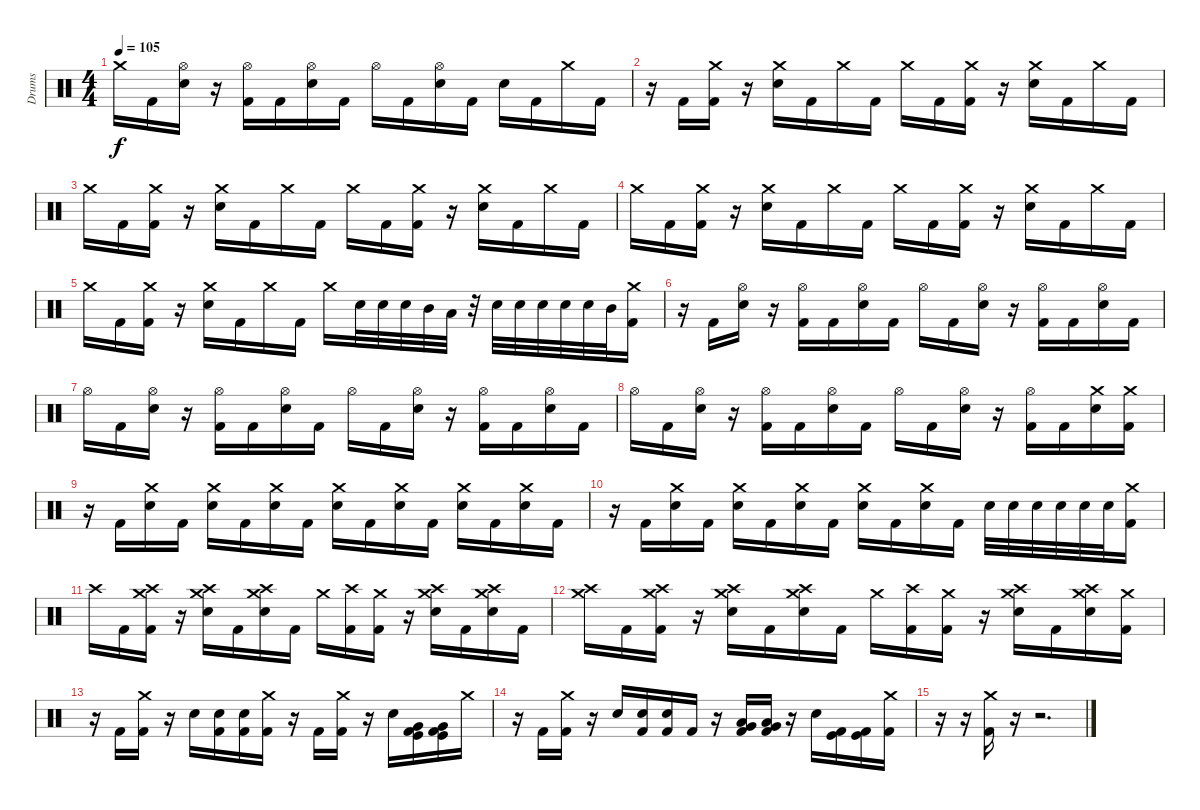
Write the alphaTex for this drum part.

\track ("Drums" "Drums") {instrument percussion}
\staff {score}
\articulation defaults
\ts (4 4)
\tempo 105
\clef neutral
\ks c "Crash medium (hit)".16{dy f} "Kick (hit) 2".16
("Hi-Hat (open)" "Electric Snare (hit)").16 r.16 ("Hi-Hat (open)" "Kick (hit) 2").16 "Kick (hit) 2".16 ("Hi-Hat (open)" "Electric Snare (hit)").16 "Kick (hit) 2".16 "Hi-Hat (open)".16 "Kick (hit) 2".16 ("Hi-Hat (open)" "Electric Snare (hit)").16 "Kick (hit) 2".16 "Electric Snare (hit)".16 "Kick (hit) 2".16 "Crash medium (hit)".16 "Kick (hit) 2".16 |
r.16 "Kick (hit) 2".16 ("Crash medium (hit)" "Kick (hit) 2").16 r.16 ("Crash medium (hit)" "Electric Snare (hit)").16 "Kick (hit) 2".16 "Crash medium (hit)".16 "Kick (hit) 2".16 "Crash medium (hit)".16 "Kick (hit) 2".16 ("Crash medium (hit)" "Kick (hit) 2").16 r.16 ("Crash medium (hit)" "Electric Snare (hit)").16 "Kick (hit) 2".16 "Crash medium (hit)".16 "Kick (hit) 2".16 |
"Crash medium (hit)".16 "Kick (hit) 2".16 ("Crash medium (hit)" "Kick (hit) 2").16 r.16 ("Crash medium (hit)" "Electric Snare (hit)").16 "Kick (hit) 2".16 "Crash medium (hit)".16 "Kick (hit) 2".16 "Crash medium (hit)".16 "Kick (hit) 2".16 ("Crash medium (hit)" "Kick (hit) 2").16 r.16 ("Crash medium (hit)" "Electric Snare (hit)").16 "Kick (hit) 2".16 "Crash medium (hit)".16 "Kick (hit) 2".16 |
"Crash medium (hit)".16 "Kick (hit) 2".16 ("Crash medium (hit)" "Kick (hit) 2").16 r.16 ("Crash medium (hit)" "Electric Snare (hit)").16 "Kick (hit) 2".16 "Crash medium (hit)".16 "Kick (hit) 2".16 "Crash medium (hit)".16 "Kick (hit) 2".16 ("Crash medium (hit)" "Kick (hit) 2").16 r.16 ("Crash medium (hit)" "Electric Snare (hit)").16 "Kick (hit) 2".16 "Crash medium (hit)".16 "Kick (hit) 2".16 |
"Crash medium (hit)".16 "Kick (hit) 2".16 ("Crash medium (hit)" "Kick (hit) 2").16 r.16 ("Crash medium (hit)" "Electric Snare (hit)").16 "Kick (hit) 2".16 "Crash medium (hit)".16 "Kick (hit) 2".16 "Crash medium (hit)".16 "Electric Snare (hit)".32 "Electric Snare (hit)".32 "Electric Snare (hit)".32 "Mid Tom (hit)".32 "Low Tom (hit)".32 r.32 "Electric Snare (hit)".32 "Electric Snare (hit)".32 "Electric Snare (hit)".32 "Electric Snare (hit)".32 "Electric Snare (hit)".32 "Mid Tom (hit)".32 ("Crash medium (hit)" "Kick (hit) 2").16 |
r.16 "Kick (hit) 2".16 ("Hi-Hat (open)" "Electric Snare (hit)").16 r.16 ("Hi-Hat (open)" "Kick (hit) 2").16 "Kick (hit) 2".16 ("Hi-Hat (open)" "Electric Snare (hit)").16 "Kick (hit) 2".16 "Hi-Hat (open)".16 "Kick (hit) 2".16 ("Hi-Hat (open)" "Electric Snare (hit)").16 r.16 ("Hi-Hat (open)" "Kick (hit) 2").16 "Kick (hit) 2".16 ("Hi-Hat (open)" "Electric Snare (hit)").16 "Kick (hit) 2".16 |
"Hi-Hat (open)".16 "Kick (hit) 2".16 ("Hi-Hat (open)" "Electric Snare (hit)").16 r.16 ("Hi-Hat (open)" "Kick (hit) 2").16 "Kick (hit) 2".16 ("Hi-Hat (open)" "Electric Snare (hit)").16 "Kick (hit) 2".16 "Hi-Hat (open)".16 "Kick (hit) 2".16 ("Hi-Hat (open)" "Electric Snare (hit)").16 r.16 ("Hi-Hat (open)" "Kick (hit) 2").16 "Kick (hit) 2".16 ("Hi-Hat (open)" "Electric Snare (hit)").16 "Kick (hit) 2".16 |
"Hi-Hat (open)".16 "Kick (hit) 2".16 ("Hi-Hat (open)" "Electric Snare (hit)").16 r.16 ("Hi-Hat (open)" "Kick (hit) 2").16 "Kick (hit) 2".16 ("Hi-Hat (open)" "Electric Snare (hit)").16 "Kick (hit) 2".16 "Hi-Hat (open)".16 "Kick (hit) 2".16 ("Hi-Hat (open)" "Electric Snare (hit)").16 r.16 ("Hi-Hat (open)" "Kick (hit) 2").16 "Kick (hit) 2".16 ("Crash medium (hit)" "Electric Snare (hit)").16 ("Crash medium (hit)" "Kick (hit) 2").16 |
r.16 "Kick (hit) 2".16 ("Crash medium (hit)" "Electric Snare (hit)").16 "Kick (hit) 2".16 ("Crash medium (hit)" "Electric Snare (hit)").16 "Kick (hit) 2".16 ("Crash medium (hit)" "Electric Snare (hit)").16 "Kick (hit) 2".16 ("Crash medium (hit)" "Electric Snare (hit)").16 "Kick (hit) 2".16 ("Crash medium (hit)" "Electric Snare (hit)").16 "Kick (hit) 2".16 ("Crash medium (hit)" "Electric Snare (hit)").16 "Kick (hit) 2".16 ("Crash medium (hit)" "Electric Snare (hit)").16 "Kick (hit) 2".16 |
r.16 "Kick (hit) 2".16 ("Crash medium (hit)" "Electric Snare (hit)").16 "Kick (hit) 2".16 ("Crash medium (hit)" "Electric Snare (hit)").16 "Kick (hit) 2".16 ("Crash medium (hit)" "Electric Snare (hit)").16 "Kick (hit) 2".16 ("Crash medium (hit)" "Electric Snare (hit)").16 "Kick (hit) 2".16 ("Crash medium (hit)" "Electric Snare (hit)").16 "Kick (hit) 2".16 "Electric Snare (hit)".32 "Electric Snare (hit)".32 "Electric Snare (hit)".32 "Electric Snare (hit)".32 "Electric Snare (hit)".32 "Electric Snare (hit)".32 ("Crash medium (hit)" "Kick (hit) 2").16 |
"Crash high (hit)".16 "Kick (hit) 2".16 ("Crash medium (hit)" "Crash high (hit)" "Kick (hit) 2").16 r.16 ("Crash medium (hit)" "Crash high (hit)" "Electric Snare (hit)").16 "Kick (hit) 2".16 ("Crash medium (hit)" "Crash high (hit)" "Electric Snare (hit)").16 "Kick (hit) 2".16 "Crash medium (hit)".16 ("Crash high (hit)" "Kick (hit) 2").16 ("Crash medium (hit)" "Kick (hit) 2").16 r.16 ("Crash medium (hit)" "Crash high (hit)" "Electric Snare (hit)").16 "Kick (hit) 2".16 ("Crash medium (hit)" "Crash high (hit)" "Electric Snare (hit)").16 "Kick (hit) 2".16 |
("Crash medium (hit)" "Crash high (hit)").16 "Kick (hit) 2".16 ("Crash medium (hit)" "Crash high (hit)" "Kick (hit) 2").16 r.16 ("Crash medium (hit)" "Crash high (hit)" "Electric Snare (hit)").16 "Kick (hit) 2".16 ("Crash medium (hit)" "Crash high (hit)" "Electric Snare (hit)").16 "Kick (hit) 2".16 "Crash medium (hit)".16 ("Crash high (hit)" "Kick (hit) 2").16 ("Crash medium (hit)" "Kick (hit) 2").16 r.16 ("Crash medium (hit)" "Crash high (hit)" "Electric Snare (hit)").16 "Kick (hit) 2".16 ("Crash medium (hit)" "Crash high (hit)" "Electric Snare (hit)").16 ("Crash medium (hit)" "Kick (hit) 2").16 |
r.16 "Kick (hit) 2".16 ("Crash medium (hit)" "Kick (hit) 2").16 r.16 "Electric Snare (hit)".16 ("Electric Snare (hit)" "Kick (hit) 2").16 ("Electric Snare (hit)" "Kick (hit) 2").16 ("Crash medium (hit)" "Kick (hit) 2").16 r.16 "Kick (hit) 2".16 ("Crash medium (hit)" "Kick (hit) 2").16 r.16 "Electric Snare (hit)".16 ("Very Low Tom (hit)" "Kick (hit)" "Kick (hit) 2").16 ("Very Low Tom (hit)" "Kick (hit)" "Kick (hit) 2").16 "Crash medium (hit)".16 |
r.16 "Kick (hit) 2".16 ("Crash medium (hit)" "Kick (hit) 2").16 r.16 "Electric Snare (hit)".16 ("Electric Snare (hit)" "Kick (hit) 2").16 ("Electric Snare (hit)" "Kick (hit) 2").16 "Kick (hit) 2".16 r.16 ("Very Low Tom (hit)" "Low Floor Tom (hit)" "Kick (hit) 2").16 ("Very Low Tom (hit)" "Low Floor Tom (hit)" "Kick (hit) 2").16 r.16 "Electric Snare (hit)".16 ("Kick (hit)" "Kick (hit) 2").16 ("Kick (hit)" "Kick (hit) 2").16 ("Kick (hit) 2" "Crash medium (hit)").16 |
r.16 r.16 ("Crash medium (hit)" "Kick (hit) 2").16 r.16 r.2{d}
